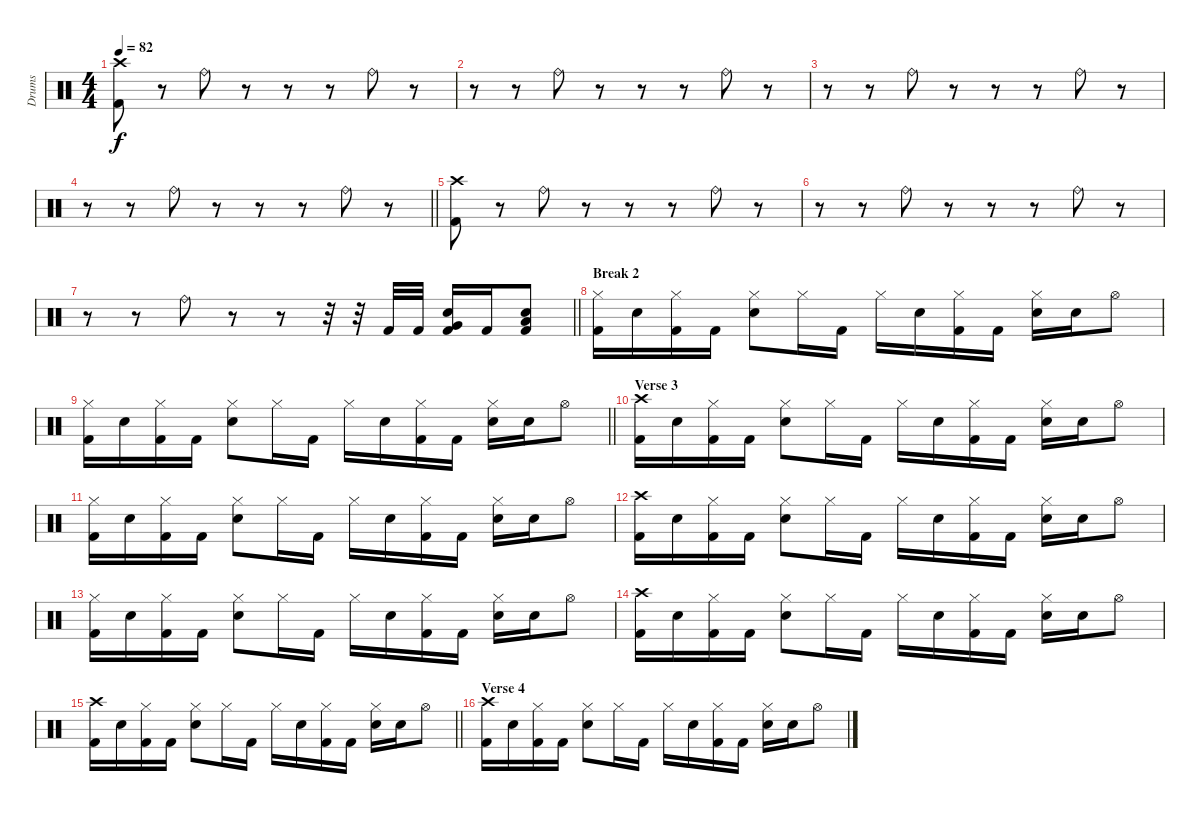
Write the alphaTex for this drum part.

\track ("Drums" "Drums") {instrument percussion}
\staff {score}
\articulation defaults
\ts (4 4)
\tempo 82
\clef neutral
\ks c
("Crash high (hit)" "Kick (hit) 2").8{dy f} r.8 "Ride (bell)".8 r.8 r.8 r.8 "Ride (bell)".8 r.8 |
r.8 r.8 "Ride (bell)".8 r.8 r.8 r.8 "Ride (bell)".8 r.8 |
r.8 r.8 "Ride (bell)".8 r.8 r.8 r.8 "Ride (bell)".8 r.8 |
\barLineRight lightlight
r.8 r.8 "Ride (bell)".8 r.8 r.8 r.8 "Ride (bell)".8 r.8 |
("Crash high (hit)" "Kick (hit) 2").8 r.8 "Ride (bell)".8 r.8 r.8 r.8 "Ride (bell)".8 r.8 |
r.8 r.8 "Ride (bell)".8 r.8 r.8 r.8 "Ride (bell)".8 r.8 |
\barLineRight lightlight
r.8 r.8 "Ride (bell)".8 r.8 r.8 r.32 r.32 "Kick (hit) 2".32 "Kick (hit) 2".32 ("Very Low Tom (hit)" "Electric Snare (hit)" "Kick (hit) 2").16 "Kick (hit) 2".16 ("Low Floor Tom (hit)" "Electric Snare (hit)" "Kick (hit) 2").8 |
\section ("" "Break 2")
("Hi-Hat (closed)" "Kick (hit) 2").16 "Snare (hit) 2".16 ("Hi-Hat (closed)" "Kick (hit) 2").16 "Kick (hit) 2".16 ("Hi-Hat (closed)" "Snare (hit) 2").8 "Hi-Hat (closed)".16 "Kick (hit) 2".16 "Hi-Hat (closed)".16 "Snare (hit) 2".16 ("Hi-Hat (closed)" "Kick (hit) 2").16 "Kick (hit) 2".16 ("Hi-Hat (closed)" "Snare (hit) 2").16 "Snare (hit) 2".16 "Hi-Hat (open)".8 |
\barLineRight lightlight
("Hi-Hat (closed)" "Kick (hit) 2").16 "Snare (hit) 2".16 ("Hi-Hat (closed)" "Kick (hit) 2").16 "Kick (hit) 2".16 ("Hi-Hat (closed)" "Snare (hit) 2").8 "Hi-Hat (closed)".16 "Kick (hit) 2".16 "Hi-Hat (closed)".16 "Snare (hit) 2".16 ("Hi-Hat (closed)" "Kick (hit) 2").16 "Kick (hit) 2".16 ("Hi-Hat (closed)" "Snare (hit) 2").16 "Snare (hit) 2".16 "Hi-Hat (open)".8 |
\section ("" "Verse 3")
("Crash high (hit)" "Kick (hit) 2").16 "Snare (hit) 2".16 ("Hi-Hat (closed)" "Kick (hit) 2").16 "Kick (hit) 2".16 ("Hi-Hat (closed)" "Snare (hit) 2").8 "Hi-Hat (closed)".16 "Kick (hit) 2".16 "Hi-Hat (closed)".16 "Snare (hit) 2".16 ("Hi-Hat (closed)" "Kick (hit) 2").16 "Kick (hit) 2".16 ("Hi-Hat (closed)" "Snare (hit) 2").16 "Snare (hit) 2".16 "Hi-Hat (open)".8 |
("Hi-Hat (closed)" "Kick (hit) 2").16 "Snare (hit) 2".16 ("Hi-Hat (closed)" "Kick (hit) 2").16 "Kick (hit) 2".16 ("Hi-Hat (closed)" "Snare (hit) 2").8 "Hi-Hat (closed)".16 "Kick (hit) 2".16 "Hi-Hat (closed)".16 "Snare (hit) 2".16 ("Hi-Hat (closed)" "Kick (hit) 2").16 "Kick (hit) 2".16 ("Hi-Hat (closed)" "Snare (hit) 2").16 "Snare (hit) 2".16 "Hi-Hat (open)".8 |
("Crash high (hit)" "Kick (hit) 2").16 "Snare (hit) 2".16 ("Hi-Hat (closed)" "Kick (hit) 2").16 "Kick (hit) 2".16 ("Hi-Hat (closed)" "Snare (hit) 2").8 "Hi-Hat (closed)".16 "Kick (hit) 2".16 "Hi-Hat (closed)".16 "Snare (hit) 2".16 ("Hi-Hat (closed)" "Kick (hit) 2").16 "Kick (hit) 2".16 ("Hi-Hat (closed)" "Snare (hit) 2").16 "Snare (hit) 2".16 "Hi-Hat (open)".8 |
("Hi-Hat (closed)" "Kick (hit) 2").16 "Snare (hit) 2".16 ("Hi-Hat (closed)" "Kick (hit) 2").16 "Kick (hit) 2".16 ("Hi-Hat (closed)" "Snare (hit) 2").8 "Hi-Hat (closed)".16 "Kick (hit) 2".16 "Hi-Hat (closed)".16 "Snare (hit) 2".16 ("Hi-Hat (closed)" "Kick (hit) 2").16 "Kick (hit) 2".16 ("Hi-Hat (closed)" "Snare (hit) 2").16 "Snare (hit) 2".16 "Hi-Hat (open)".8 |
("Crash high (hit)" "Kick (hit) 2").16 "Snare (hit) 2".16 ("Hi-Hat (closed)" "Kick (hit) 2").16 "Kick (hit) 2".16 ("Hi-Hat (closed)" "Snare (hit) 2").8 "Hi-Hat (closed)".16 "Kick (hit) 2".16 "Hi-Hat (closed)".16 "Snare (hit) 2".16 ("Hi-Hat (closed)" "Kick (hit) 2").16 "Kick (hit) 2".16 ("Hi-Hat (closed)" "Snare (hit) 2").16 "Snare (hit) 2".16 "Hi-Hat (open)".8 |
\barLineRight lightlight
("Crash high (hit)" "Kick (hit) 2").16 "Snare (hit) 2".16 ("Hi-Hat (closed)" "Kick (hit) 2").16 "Kick (hit) 2".16 ("Hi-Hat (closed)" "Snare (hit) 2").8 "Hi-Hat (closed)".16 "Kick (hit) 2".16 "Hi-Hat (closed)".16 "Snare (hit) 2".16 ("Hi-Hat (closed)" "Kick (hit) 2").16 "Kick (hit) 2".16 ("Hi-Hat (closed)" "Snare (hit) 2").16 "Snare (hit) 2".16 "Hi-Hat (open)".8 |
\section ("" "Verse 4")
("Crash high (hit)" "Kick (hit) 2").16 "Snare (hit) 2".16 ("Hi-Hat (closed)" "Kick (hit) 2").16 "Kick (hit) 2".16 ("Hi-Hat (closed)" "Snare (hit) 2").8 "Hi-Hat (closed)".16 "Kick (hit) 2".16 "Hi-Hat (closed)".16 "Snare (hit) 2".16 ("Hi-Hat (closed)" "Kick (hit) 2").16 "Kick (hit) 2".16 ("Hi-Hat (closed)" "Snare (hit) 2").16 "Snare (hit) 2".16 "Hi-Hat (open)".8
